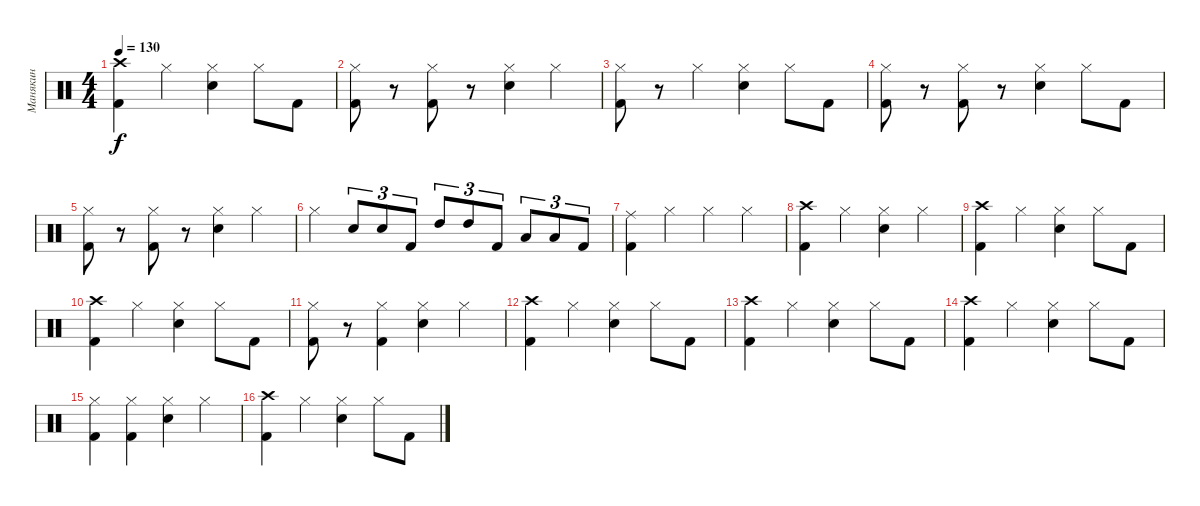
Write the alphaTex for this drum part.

\track ("Манякин" "Манякин") {instrument percussion}
\staff {score}
\articulation defaults
\ts (4 4)
\tempo 130
\clef neutral
\ks c
("Crash high (hit)" "Kick (hit) 2").4{dy f} "Hi-Hat (closed)".4 ("Hi-Hat (closed)" "Electric Snare (hit)").4 "Hi-Hat (closed)".8 "Kick (hit) 2".8 |
("Hi-Hat (closed)" "Kick (hit) 2").8 r.8 ("Hi-Hat (closed)" "Kick (hit) 2").8 r.8 ("Hi-Hat (closed)" "Electric Snare (hit)").4 "Hi-Hat (closed)".4 |
("Hi-Hat (closed)" "Kick (hit) 2").8 r.8 "Hi-Hat (closed)".4 ("Hi-Hat (closed)" "Electric Snare (hit)").4 "Hi-Hat (closed)".8 "Kick (hit) 2".8 |
("Hi-Hat (closed)" "Kick (hit) 2").8 r.8 ("Hi-Hat (closed)" "Kick (hit) 2").8 r.8 ("Hi-Hat (closed)" "Electric Snare (hit)").4 "Hi-Hat (closed)".8 "Kick (hit) 2".8 |
("Hi-Hat (closed)" "Kick (hit) 2").8 r.8 ("Hi-Hat (closed)" "Kick (hit) 2").8 r.8 ("Hi-Hat (closed)" "Electric Snare (hit)").4 "Hi-Hat (closed)".4 |
"Hi-Hat (closed)".4 "Electric Snare (hit)".8{tu (3 2)} "Electric Snare (hit)".8{tu (3 2)} "Kick (hit) 2".8{tu (3 2)} "High Tom (hit)".8{tu (3 2)} "High Tom (hit)".8{tu (3 2)} "Kick (hit) 2".8{tu (3 2)} "Low Tom (hit)".8{tu (3 2)} "Low Tom (hit)".8{tu (3 2)} "Kick (hit) 2".8{tu (3 2)} |
("Ride (middle)" "Kick (hit) 2").4 "Hi-Hat (closed)".4 "Hi-Hat (closed)".4 "Hi-Hat (closed)".4 |
("Crash high (hit)" "Kick (hit) 2").4 "Hi-Hat (closed)".4 ("Hi-Hat (closed)" "Electric Snare (hit)").4 "Hi-Hat (closed)".4 |
("Crash high (hit)" "Kick (hit) 2").4 "Hi-Hat (closed)".4 ("Hi-Hat (closed)" "Electric Snare (hit)").4 "Hi-Hat (closed)".8 "Kick (hit) 2".8 |
("Crash high (hit)" "Kick (hit) 2").4 "Hi-Hat (closed)".4 ("Hi-Hat (closed)" "Electric Snare (hit)").4 "Hi-Hat (closed)".8 "Kick (hit) 2".8 |
("Hi-Hat (closed)" "Kick (hit) 2").8 r.8 ("Hi-Hat (closed)" "Kick (hit) 2").4 ("Hi-Hat (closed)" "Electric Snare (hit)").4 "Hi-Hat (closed)".4 |
("Crash high (hit)" "Kick (hit) 2").4 "Hi-Hat (closed)".4 ("Hi-Hat (closed)" "Electric Snare (hit)").4 "Hi-Hat (closed)".8 "Kick (hit) 2".8 |
("Crash high (hit)" "Kick (hit) 2").4 "Hi-Hat (closed)".4 ("Hi-Hat (closed)" "Electric Snare (hit)").4 "Hi-Hat (closed)".8 "Kick (hit) 2".8 |
("Crash high (hit)" "Kick (hit) 2").4 "Hi-Hat (closed)".4 ("Hi-Hat (closed)" "Electric Snare (hit)").4 "Hi-Hat (closed)".8 "Kick (hit) 2".8 |
("Hi-Hat (closed)" "Kick (hit) 2").4 ("Hi-Hat (closed)" "Kick (hit) 2").4 ("Hi-Hat (closed)" "Electric Snare (hit)").4 "Hi-Hat (closed)".4 |
("Crash high (hit)" "Kick (hit) 2").4 "Hi-Hat (closed)".4 ("Hi-Hat (closed)" "Electric Snare (hit)").4 "Hi-Hat (closed)".8 "Kick (hit) 2".8
